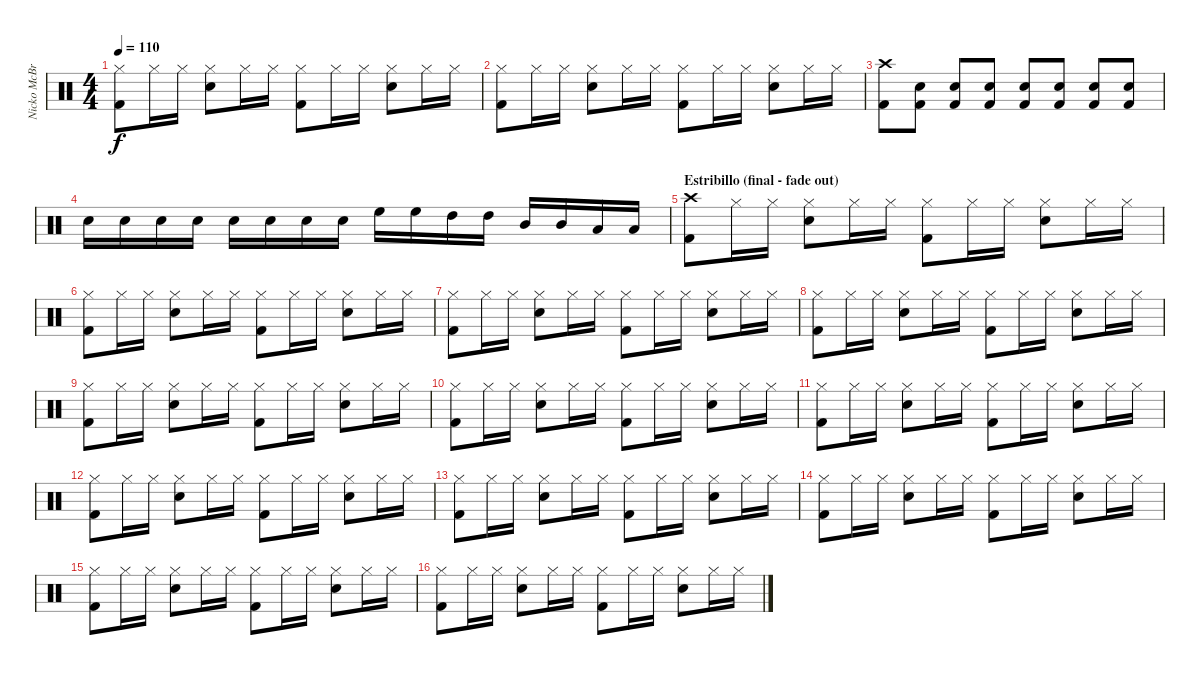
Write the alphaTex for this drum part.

\track ("Nicko McBrain" "Nicko McBr") {instrument percussion}
\staff {score}
\articulation defaults
\ts (4 4)
\tempo 110
\clef neutral
\ks c
("Hi-Hat (closed)" "Kick (hit) 2").8{dy f} "Hi-Hat (closed)".16 "Hi-Hat (closed)".16 ("Hi-Hat (closed)" "Snare (hit) 2").8 "Hi-Hat (closed)".16 "Hi-Hat (closed)".16 ("Hi-Hat (closed)" "Kick (hit) 2").8 "Hi-Hat (closed)".16 "Hi-Hat (closed)".16 ("Hi-Hat (closed)" "Snare (hit) 2").8 "Hi-Hat (closed)".16 "Hi-Hat (closed)".16 |
("Hi-Hat (closed)" "Kick (hit) 2").8 "Hi-Hat (closed)".16 "Hi-Hat (closed)".16 ("Hi-Hat (closed)" "Snare (hit) 2").8 "Hi-Hat (closed)".16 "Hi-Hat (closed)".16 ("Hi-Hat (closed)" "Kick (hit) 2").8 "Hi-Hat (closed)".16 "Hi-Hat (closed)".16 ("Hi-Hat (closed)" "Snare (hit) 2").8 "Hi-Hat (closed)".16 "Hi-Hat (closed)".16 |
("Crash high (hit)" "Kick (hit) 2").8 ("Kick (hit) 2" "Snare (hit) 2").8 ("Kick (hit) 2" "Snare (hit) 2").8 ("Kick (hit) 2" "Snare (hit) 2").8 ("Kick (hit) 2" "Snare (hit) 2").8 ("Kick (hit) 2" "Snare (hit) 2").8 ("Kick (hit) 2" "Snare (hit) 2").8 ("Kick (hit) 2" "Snare (hit) 2").8 |
"Snare (hit) 2".16 "Snare (hit) 2".16 "Snare (hit) 2".16 "Snare (hit) 2".16 "Snare (hit) 2".16 "Snare (hit) 2".16 "Snare (hit) 2".16 "Snare (hit) 2".16 "High Floor Tom (hit)".16 "High Floor Tom (hit)".16 "High Tom (hit)".16 "High Tom (hit)".16 "Mid Tom (hit)".16 "Mid Tom (hit)".16 "Low Tom (hit)".16 "Low Tom (hit)".16 |
\section ("" "Estribillo (final - fade out)")
("Crash high (hit)" "Kick (hit) 2").8 "Hi-Hat (closed)".16 "Hi-Hat (closed)".16 ("Hi-Hat (closed)" "Snare (hit) 2").8 "Hi-Hat (closed)".16 "Hi-Hat (closed)".16 ("Hi-Hat (closed)" "Kick (hit) 2").8 "Hi-Hat (closed)".16 "Hi-Hat (closed)".16 ("Hi-Hat (closed)" "Snare (hit) 2").8 "Hi-Hat (closed)".16 "Hi-Hat (closed)".16 |
("Hi-Hat (closed)" "Kick (hit) 2").8 "Hi-Hat (closed)".16 "Hi-Hat (closed)".16 ("Hi-Hat (closed)" "Snare (hit) 2").8 "Hi-Hat (closed)".16 "Hi-Hat (closed)".16 ("Hi-Hat (closed)" "Kick (hit) 2").8 "Hi-Hat (closed)".16 "Hi-Hat (closed)".16 ("Hi-Hat (closed)" "Snare (hit) 2").8 "Hi-Hat (closed)".16 "Hi-Hat (closed)".16 |
("Hi-Hat (closed)" "Kick (hit) 2").8 "Hi-Hat (closed)".16 "Hi-Hat (closed)".16 ("Hi-Hat (closed)" "Snare (hit) 2").8 "Hi-Hat (closed)".16 "Hi-Hat (closed)".16 ("Hi-Hat (closed)" "Kick (hit) 2").8 "Hi-Hat (closed)".16 "Hi-Hat (closed)".16 ("Hi-Hat (closed)" "Snare (hit) 2").8 "Hi-Hat (closed)".16 "Hi-Hat (closed)".16 |
("Hi-Hat (closed)" "Kick (hit) 2").8 "Hi-Hat (closed)".16 "Hi-Hat (closed)".16 ("Hi-Hat (closed)" "Snare (hit) 2").8 "Hi-Hat (closed)".16 "Hi-Hat (closed)".16 ("Hi-Hat (closed)" "Kick (hit) 2").8 "Hi-Hat (closed)".16 "Hi-Hat (closed)".16 ("Hi-Hat (closed)" "Snare (hit) 2").8 "Hi-Hat (closed)".16 "Hi-Hat (closed)".16 |
("Hi-Hat (closed)" "Kick (hit) 2").8 "Hi-Hat (closed)".16 "Hi-Hat (closed)".16 ("Hi-Hat (closed)" "Snare (hit) 2").8 "Hi-Hat (closed)".16 "Hi-Hat (closed)".16 ("Hi-Hat (closed)" "Kick (hit) 2").8 "Hi-Hat (closed)".16 "Hi-Hat (closed)".16 ("Hi-Hat (closed)" "Snare (hit) 2").8 "Hi-Hat (closed)".16 "Hi-Hat (closed)".16 |
("Hi-Hat (closed)" "Kick (hit) 2").8 "Hi-Hat (closed)".16 "Hi-Hat (closed)".16 ("Hi-Hat (closed)" "Snare (hit) 2").8 "Hi-Hat (closed)".16 "Hi-Hat (closed)".16 ("Hi-Hat (closed)" "Kick (hit) 2").8 "Hi-Hat (closed)".16 "Hi-Hat (closed)".16 ("Hi-Hat (closed)" "Snare (hit) 2").8 "Hi-Hat (closed)".16 "Hi-Hat (closed)".16 |
("Hi-Hat (closed)" "Kick (hit) 2").8 "Hi-Hat (closed)".16 "Hi-Hat (closed)".16 ("Hi-Hat (closed)" "Snare (hit) 2").8 "Hi-Hat (closed)".16 "Hi-Hat (closed)".16 ("Hi-Hat (closed)" "Kick (hit) 2").8 "Hi-Hat (closed)".16 "Hi-Hat (closed)".16 ("Hi-Hat (closed)" "Snare (hit) 2").8 "Hi-Hat (closed)".16 "Hi-Hat (closed)".16 |
("Hi-Hat (closed)" "Kick (hit) 2").8 "Hi-Hat (closed)".16 "Hi-Hat (closed)".16 ("Hi-Hat (closed)" "Snare (hit) 2").8 "Hi-Hat (closed)".16 "Hi-Hat (closed)".16 ("Hi-Hat (closed)" "Kick (hit) 2").8 "Hi-Hat (closed)".16 "Hi-Hat (closed)".16 ("Hi-Hat (closed)" "Snare (hit) 2").8 "Hi-Hat (closed)".16 "Hi-Hat (closed)".16 |
("Hi-Hat (closed)" "Kick (hit) 2").8 "Hi-Hat (closed)".16 "Hi-Hat (closed)".16 ("Hi-Hat (closed)" "Snare (hit) 2").8 "Hi-Hat (closed)".16 "Hi-Hat (closed)".16 ("Hi-Hat (closed)" "Kick (hit) 2").8 "Hi-Hat (closed)".16 "Hi-Hat (closed)".16 ("Hi-Hat (closed)" "Snare (hit) 2").8 "Hi-Hat (closed)".16 "Hi-Hat (closed)".16 |
("Hi-Hat (closed)" "Kick (hit) 2").8 "Hi-Hat (closed)".16 "Hi-Hat (closed)".16 ("Hi-Hat (closed)" "Snare (hit) 2").8 "Hi-Hat (closed)".16 "Hi-Hat (closed)".16 ("Hi-Hat (closed)" "Kick (hit) 2").8 "Hi-Hat (closed)".16 "Hi-Hat (closed)".16 ("Hi-Hat (closed)" "Snare (hit) 2").8 "Hi-Hat (closed)".16 "Hi-Hat (closed)".16 |
("Hi-Hat (closed)" "Kick (hit) 2").8 "Hi-Hat (closed)".16 "Hi-Hat (closed)".16 ("Hi-Hat (closed)" "Snare (hit) 2").8 "Hi-Hat (closed)".16 "Hi-Hat (closed)".16 ("Hi-Hat (closed)" "Kick (hit) 2").8 "Hi-Hat (closed)".16 "Hi-Hat (closed)".16 ("Hi-Hat (closed)" "Snare (hit) 2").8 "Hi-Hat (closed)".16 "Hi-Hat (closed)".16 |
("Hi-Hat (closed)" "Kick (hit) 2").8 "Hi-Hat (closed)".16 "Hi-Hat (closed)".16 ("Hi-Hat (closed)" "Snare (hit) 2").8 "Hi-Hat (closed)".16 "Hi-Hat (closed)".16 ("Hi-Hat (closed)" "Kick (hit) 2").8 "Hi-Hat (closed)".16 "Hi-Hat (closed)".16 ("Hi-Hat (closed)" "Snare (hit) 2").8 "Hi-Hat (closed)".16 "Hi-Hat (closed)".16
